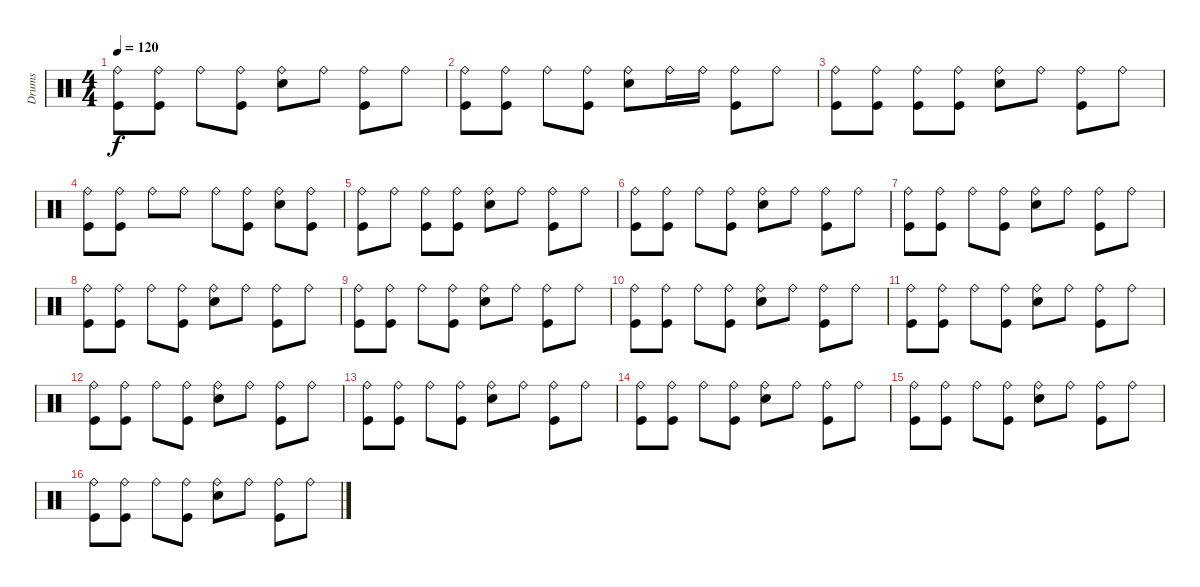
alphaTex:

\track ("Drums" "Drums") {instrument percussion}
\staff {score}
\articulation defaults
\ts (4 4)
\tempo 120
\clef neutral
\ks c
("Kick (hit)" "Ride (bell)").8{dy f} ("Kick (hit)" "Ride (bell)").8 "Ride (bell)".8 ("Kick (hit)" "Ride (bell)").8 ("Electric Snare (hit)" "Ride (bell)").8 "Ride (bell)".8 ("Kick (hit)" "Ride (bell)").8 "Ride (bell)".8 |
("Kick (hit)" "Ride (bell)").8 ("Kick (hit)" "Ride (bell)").8 "Ride (bell)".8 ("Kick (hit)" "Ride (bell)").8 ("Electric Snare (hit)" "Ride (bell)").8 "Ride (bell)".16 "Ride (bell)".16 ("Kick (hit)" "Ride (bell)").8 "Ride (bell)".8 |
("Kick (hit)" "Ride (bell)").8 ("Kick (hit)" "Ride (bell)").8 ("Kick (hit)" "Ride (bell)").8 ("Kick (hit)" "Ride (bell)").8 ("Electric Snare (hit)" "Ride (bell)").8 "Ride (bell)".8 ("Kick (hit)" "Ride (bell)").8 "Ride (bell)".8 |
("Kick (hit)" "Ride (bell)").8 ("Kick (hit)" "Ride (bell)").8 "Ride (bell)".8 "Ride (bell)".8 "Ride (bell)".8 ("Kick (hit)" "Ride (bell)").8 ("Electric Snare (hit)" "Ride (bell)").8 ("Kick (hit)" "Ride (bell)").8 |
("Kick (hit)" "Ride (bell)").8 "Ride (bell)".8 ("Kick (hit)" "Ride (bell)").8 ("Kick (hit)" "Ride (bell)").8 ("Electric Snare (hit)" "Ride (bell)").8 "Ride (bell)".8 ("Kick (hit)" "Ride (bell)").8 "Ride (bell)".8 |
("Kick (hit)" "Ride (bell)").8 ("Kick (hit)" "Ride (bell)").8 "Ride (bell)".8 ("Kick (hit)" "Ride (bell)").8 ("Electric Snare (hit)" "Ride (bell)").8 "Ride (bell)".8 ("Kick (hit)" "Ride (bell)").8 "Ride (bell)".8 |
("Kick (hit)" "Ride (bell)").8 ("Kick (hit)" "Ride (bell)").8 "Ride (bell)".8 ("Kick (hit)" "Ride (bell)").8 ("Electric Snare (hit)" "Ride (bell)").8 "Ride (bell)".8 ("Kick (hit)" "Ride (bell)").8 "Ride (bell)".8 |
("Kick (hit)" "Ride (bell)").8 ("Kick (hit)" "Ride (bell)").8 "Ride (bell)".8 ("Kick (hit)" "Ride (bell)").8 ("Electric Snare (hit)" "Ride (bell)").8 "Ride (bell)".8 ("Kick (hit)" "Ride (bell)").8 "Ride (bell)".8 |
("Kick (hit)" "Ride (bell)").8 ("Kick (hit)" "Ride (bell)").8 "Ride (bell)".8 ("Kick (hit)" "Ride (bell)").8 ("Electric Snare (hit)" "Ride (bell)").8 "Ride (bell)".8 ("Kick (hit)" "Ride (bell)").8 "Ride (bell)".8 |
("Kick (hit)" "Ride (bell)").8 ("Kick (hit)" "Ride (bell)").8 "Ride (bell)".8 ("Kick (hit)" "Ride (bell)").8 ("Electric Snare (hit)" "Ride (bell)").8 "Ride (bell)".8 ("Kick (hit)" "Ride (bell)").8 "Ride (bell)".8 |
("Kick (hit)" "Ride (bell)").8 ("Kick (hit)" "Ride (bell)").8 "Ride (bell)".8 ("Kick (hit)" "Ride (bell)").8 ("Electric Snare (hit)" "Ride (bell)").8 "Ride (bell)".8 ("Kick (hit)" "Ride (bell)").8 "Ride (bell)".8 |
("Kick (hit)" "Ride (bell)").8 ("Kick (hit)" "Ride (bell)").8 "Ride (bell)".8 ("Kick (hit)" "Ride (bell)").8 ("Electric Snare (hit)" "Ride (bell)").8 "Ride (bell)".8 ("Kick (hit)" "Ride (bell)").8 "Ride (bell)".8 |
("Kick (hit)" "Ride (bell)").8 ("Kick (hit)" "Ride (bell)").8 "Ride (bell)".8 ("Kick (hit)" "Ride (bell)").8 ("Electric Snare (hit)" "Ride (bell)").8 "Ride (bell)".8 ("Kick (hit)" "Ride (bell)").8 "Ride (bell)".8 |
("Kick (hit)" "Ride (bell)").8 ("Kick (hit)" "Ride (bell)").8 "Ride (bell)".8 ("Kick (hit)" "Ride (bell)").8 ("Electric Snare (hit)" "Ride (bell)").8 "Ride (bell)".8 ("Kick (hit)" "Ride (bell)").8 "Ride (bell)".8 |
("Kick (hit)" "Ride (bell)").8 ("Kick (hit)" "Ride (bell)").8 "Ride (bell)".8 ("Kick (hit)" "Ride (bell)").8 ("Electric Snare (hit)" "Ride (bell)").8 "Ride (bell)".8 ("Kick (hit)" "Ride (bell)").8 "Ride (bell)".8 |
("Kick (hit)" "Ride (bell)").8 ("Kick (hit)" "Ride (bell)").8 "Ride (bell)".8 ("Kick (hit)" "Ride (bell)").8 ("Electric Snare (hit)" "Ride (bell)").8 "Ride (bell)".8 ("Kick (hit)" "Ride (bell)").8 "Ride (bell)".8
